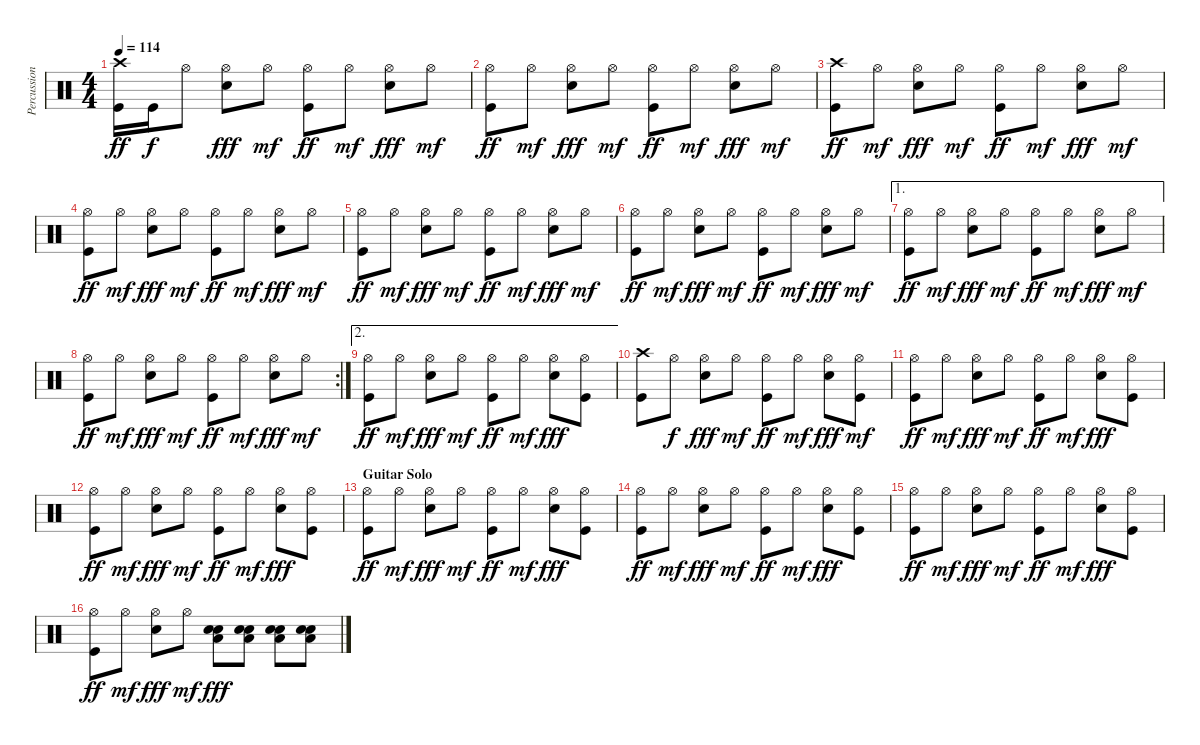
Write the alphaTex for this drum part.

\track ("Percussion" "Percussion") {instrument percussion}
\staff {score}
\articulation defaults
\ts (4 4)
\tempo 114
\clef neutral
\ks c
("Crash high (hit)" "Kick (hit)").16{dy ff} "Kick (hit)".16{dy f} "Hi-Hat (open)".8 ("Hi-Hat (open)" "Snare (hit) 2").8{dy fff} "Hi-Hat (open)".8{dy mf} ("Hi-Hat (open)" "Kick (hit)").8{dy ff} "Hi-Hat (open)".8{dy mf} ("Hi-Hat (open)" "Snare (hit) 2").8{dy fff} "Hi-Hat (open)".8{dy mf} |
("Hi-Hat (open)" "Kick (hit)").8{dy ff} "Hi-Hat (open)".8{dy mf} ("Hi-Hat (open)" "Snare (hit) 2").8{dy fff} "Hi-Hat (open)".8{dy mf} ("Hi-Hat (open)" "Kick (hit)").8{dy ff} "Hi-Hat (open)".8{dy mf} ("Hi-Hat (open)" "Snare (hit) 2").8{dy fff} "Hi-Hat (open)".8{dy mf} |
("Crash high (hit)" "Kick (hit)").8{dy ff} "Hi-Hat (open)".8{dy mf} ("Hi-Hat (open)" "Snare (hit) 2").8{dy fff} "Hi-Hat (open)".8{dy mf} ("Hi-Hat (open)" "Kick (hit)").8{dy ff} "Hi-Hat (open)".8{dy mf} ("Hi-Hat (open)" "Snare (hit) 2").8{dy fff} "Hi-Hat (open)".8{dy mf} |
("Hi-Hat (open)" "Kick (hit)").8{dy ff} "Hi-Hat (open)".8{dy mf} ("Hi-Hat (open)" "Snare (hit) 2").8{dy fff} "Hi-Hat (open)".8{dy mf} ("Hi-Hat (open)" "Kick (hit)").8{dy ff} "Hi-Hat (open)".8{dy mf} ("Hi-Hat (open)" "Snare (hit) 2").8{dy fff} "Hi-Hat (open)".8{dy mf} |
("Hi-Hat (open)" "Kick (hit)").8{dy ff} "Hi-Hat (open)".8{dy mf} ("Hi-Hat (open)" "Snare (hit) 2").8{dy fff} "Hi-Hat (open)".8{dy mf} ("Hi-Hat (open)" "Kick (hit)").8{dy ff} "Hi-Hat (open)".8{dy mf} ("Hi-Hat (open)" "Snare (hit) 2").8{dy fff} "Hi-Hat (open)".8{dy mf} |
("Hi-Hat (open)" "Kick (hit)").8{dy ff} "Hi-Hat (open)".8{dy mf} ("Hi-Hat (open)" "Snare (hit) 2").8{dy fff} "Hi-Hat (open)".8{dy mf} ("Hi-Hat (open)" "Kick (hit)").8{dy ff} "Hi-Hat (open)".8{dy mf} ("Hi-Hat (open)" "Snare (hit) 2").8{dy fff} "Hi-Hat (open)".8{dy mf} |
\ae 1
("Hi-Hat (open)" "Kick (hit)").8{dy ff} "Hi-Hat (open)".8{dy mf} ("Hi-Hat (open)" "Snare (hit) 2").8{dy fff} "Hi-Hat (open)".8{dy mf} ("Hi-Hat (open)" "Kick (hit)").8{dy ff} "Hi-Hat (open)".8{dy mf} ("Hi-Hat (open)" "Snare (hit) 2").8{dy fff} "Hi-Hat (open)".8{dy mf} |
\rc 2
("Hi-Hat (open)" "Kick (hit)").8{dy ff} "Hi-Hat (open)".8{dy mf} ("Hi-Hat (open)" "Snare (hit) 2").8{dy fff} "Hi-Hat (open)".8{dy mf} ("Hi-Hat (open)" "Kick (hit)").8{dy ff} "Hi-Hat (open)".8{dy mf} ("Hi-Hat (open)" "Snare (hit) 2").8{dy fff} "Hi-Hat (open)".8{dy mf} |
\ae 2
("Hi-Hat (open)" "Kick (hit)").8{dy ff} "Hi-Hat (open)".8{dy mf} ("Hi-Hat (open)" "Snare (hit) 2").8{dy fff} "Hi-Hat (open)".8{dy mf} ("Hi-Hat (open)" "Kick (hit)").8{dy ff} "Hi-Hat (open)".8{dy mf} ("Hi-Hat (open)" "Snare (hit) 2").8{dy fff} ("Hi-Hat (open)" "Kick (hit)").8 |
("Crash high (hit)" "Kick (hit)").8 "Hi-Hat (open)".8{dy f} ("Hi-Hat (open)" "Snare (hit) 2").8{dy fff} "Hi-Hat (open)".8{dy mf} ("Hi-Hat (open)" "Kick (hit)").8{dy ff} "Hi-Hat (open)".8{dy mf} ("Hi-Hat (open)" "Snare (hit) 2").8{dy fff} ("Hi-Hat (open)" "Kick (hit)").8{dy mf} |
("Hi-Hat (open)" "Kick (hit)").8{dy ff} "Hi-Hat (open)".8{dy mf} ("Hi-Hat (open)" "Snare (hit) 2").8{dy fff} "Hi-Hat (open)".8{dy mf} ("Hi-Hat (open)" "Kick (hit)").8{dy ff} "Hi-Hat (open)".8{dy mf} ("Hi-Hat (open)" "Snare (hit) 2").8{dy fff} ("Hi-Hat (open)" "Kick (hit)").8 |
("Hi-Hat (open)" "Kick (hit)").8{dy ff} "Hi-Hat (open)".8{dy mf} ("Hi-Hat (open)" "Snare (hit) 2").8{dy fff} "Hi-Hat (open)".8{dy mf} ("Hi-Hat (open)" "Kick (hit)").8{dy ff} "Hi-Hat (open)".8{dy mf} ("Hi-Hat (open)" "Snare (hit) 2").8{dy fff} ("Hi-Hat (open)" "Kick (hit)").8 |
\section ("" "Guitar Solo")
("Hi-Hat (open)" "Kick (hit)").8{dy ff} "Hi-Hat (open)".8{dy mf} ("Hi-Hat (open)" "Snare (hit) 2").8{dy fff} "Hi-Hat (open)".8{dy mf} ("Hi-Hat (open)" "Kick (hit)").8{dy ff} "Hi-Hat (open)".8{dy mf} ("Hi-Hat (open)" "Snare (hit) 2").8{dy fff} ("Hi-Hat (open)" "Kick (hit)").8 |
("Hi-Hat (open)" "Kick (hit)").8{dy ff} "Hi-Hat (open)".8{dy mf} ("Hi-Hat (open)" "Snare (hit) 2").8{dy fff} "Hi-Hat (open)".8{dy mf} ("Hi-Hat (open)" "Kick (hit)").8{dy ff} "Hi-Hat (open)".8{dy mf} ("Hi-Hat (open)" "Snare (hit) 2").8{dy fff} ("Hi-Hat (open)" "Kick (hit)").8 |
("Hi-Hat (open)" "Kick (hit)").8{dy ff} "Hi-Hat (open)".8{dy mf} ("Hi-Hat (open)" "Snare (hit) 2").8{dy fff} "Hi-Hat (open)".8{dy mf} ("Hi-Hat (open)" "Kick (hit)").8{dy ff} "Hi-Hat (open)".8{dy mf} ("Hi-Hat (open)" "Snare (hit) 2").8{dy fff} ("Hi-Hat (open)" "Kick (hit)").8 |
("Hi-Hat (open)" "Kick (hit)").8{dy ff} "Hi-Hat (open)".8{dy mf} ("Hi-Hat (open)" "Snare (hit) 2").8{dy fff} "Hi-Hat (open)".8{dy mf} ("Electric Snare (hit)" "Snare (hit) 2" "Low Floor Tom (hit)").8{dy fff} ("Electric Snare (hit)" "Snare (hit) 2" "Low Floor Tom (hit)").8 ("Electric Snare (hit)" "Snare (hit) 2" "Low Floor Tom (hit)").8 ("Electric Snare (hit)" "Snare (hit) 2" "Low Floor Tom (hit)").8
